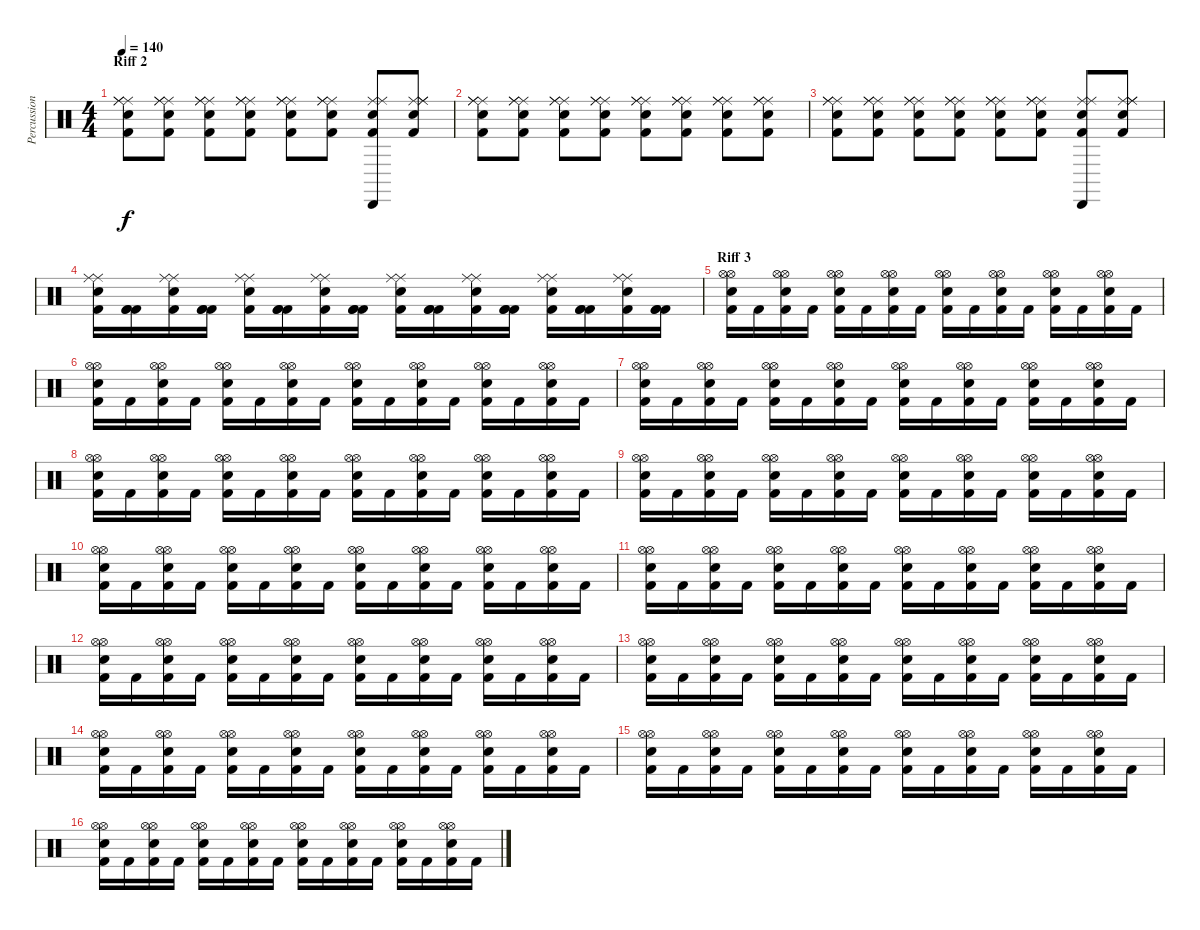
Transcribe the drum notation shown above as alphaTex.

\track ("Percussion" "Percussion") {instrument percussion}
\staff {score}
\articulation defaults
\ts (4 4)
\section ("" "Riff 2")
\tempo 140
\clef neutral
\ks c
("Ride (middle)" "Ride (middle)" "Ride (middle)" "Electric Snare (hit)" "Kick (hit) 2").8{dy f} ("Ride (middle)" "Ride (middle)" "Ride (middle)" "Electric Snare (hit)" "Kick (hit) 2").8 ("Ride (middle)" "Ride (middle)" "Ride (middle)" "Electric Snare (hit)" "Kick (hit) 2").8 ("Ride (middle)" "Ride (middle)" "Ride (middle)" "Electric Snare (hit)" "Kick (hit) 2").8 ("Ride (middle)" "Ride (middle)" "Ride (middle)" "Electric Snare (hit)" "Kick (hit) 2").8 ("Ride (middle)" "Ride (middle)" "Ride (middle)" "Electric Snare (hit)" "Kick (hit) 2").8 ("Cabasa (hit)" "Ride (middle)" "Ride (middle)" "Electric Snare (hit)" "Kick (hit) 2").8 ("Ride (middle)" "Ride (middle)" "Ride (middle)" "Electric Snare (hit)" "Kick (hit) 2").8 |
("Ride (middle)" "Ride (middle)" "Ride (middle)" "Electric Snare (hit)" "Kick (hit) 2").8 ("Ride (middle)" "Ride (middle)" "Ride (middle)" "Electric Snare (hit)" "Kick (hit) 2").8 ("Ride (middle)" "Ride (middle)" "Ride (middle)" "Electric Snare (hit)" "Kick (hit) 2").8 ("Ride (middle)" "Ride (middle)" "Ride (middle)" "Electric Snare (hit)" "Kick (hit) 2").8 ("Ride (middle)" "Ride (middle)" "Ride (middle)" "Electric Snare (hit)" "Kick (hit) 2").8 ("Ride (middle)" "Ride (middle)" "Ride (middle)" "Electric Snare (hit)" "Kick (hit) 2").8 ("Ride (middle)" "Ride (middle)" "Ride (middle)" "Electric Snare (hit)" "Kick (hit) 2").8 ("Ride (middle)" "Ride (middle)" "Ride (middle)" "Electric Snare (hit)" "Kick (hit) 2").8 |
("Ride (middle)" "Ride (middle)" "Ride (middle)" "Electric Snare (hit)" "Kick (hit) 2").8 ("Ride (middle)" "Ride (middle)" "Ride (middle)" "Electric Snare (hit)" "Kick (hit) 2").8 ("Ride (middle)" "Ride (middle)" "Ride (middle)" "Electric Snare (hit)" "Kick (hit) 2").8 ("Ride (middle)" "Ride (middle)" "Ride (middle)" "Electric Snare (hit)" "Kick (hit) 2").8 ("Ride (middle)" "Ride (middle)" "Ride (middle)" "Electric Snare (hit)" "Kick (hit) 2").8 ("Ride (middle)" "Ride (middle)" "Ride (middle)" "Electric Snare (hit)" "Kick (hit) 2").8 ("Cabasa (hit)" "Ride (middle)" "Ride (middle)" "Electric Snare (hit)" "Kick (hit) 2").8 ("Ride (middle)" "Ride (middle)" "Ride (middle)" "Electric Snare (hit)" "Kick (hit) 2").8 |
("Ride (middle)" "Ride (middle)" "Electric Snare (hit)" "Kick (hit) 2").16 ("Kick (hit) 2" "Kick (hit) 2" "Kick (hit) 2").16 ("Ride (middle)" "Ride (middle)" "Electric Snare (hit)" "Kick (hit) 2").16 ("Kick (hit) 2" "Kick (hit) 2" "Kick (hit) 2").16 ("Ride (middle)" "Ride (middle)" "Electric Snare (hit)" "Kick (hit) 2").16 ("Kick (hit) 2" "Kick (hit) 2" "Kick (hit) 2").16 ("Ride (middle)" "Ride (middle)" "Electric Snare (hit)" "Kick (hit) 2").16 ("Kick (hit) 2" "Kick (hit) 2" "Kick (hit) 2").16 ("Ride (middle)" "Ride (middle)" "Electric Snare (hit)" "Kick (hit) 2").16 ("Kick (hit) 2" "Kick (hit) 2" "Kick (hit) 2").16 ("Ride (middle)" "Ride (middle)" "Electric Snare (hit)" "Kick (hit) 2").16 ("Kick (hit) 2" "Kick (hit) 2" "Kick (hit) 2").16 ("Ride (middle)" "Ride (middle)" "Electric Snare (hit)" "Kick (hit) 2").16 ("Kick (hit) 2" "Kick (hit) 2" "Kick (hit) 2").16 ("Ride (middle)" "Ride (middle)" "Electric Snare (hit)" "Kick (hit) 2").16 ("Kick (hit) 2" "Kick (hit) 2" "Kick (hit) 2").16 |
\section ("" "Riff 3")
("Hi-Hat (open)" "Hi-Hat (open)" "Electric Snare (hit)" "Kick (hit) 2").16 "Kick (hit) 2".16 ("Hi-Hat (open)" "Hi-Hat (open)" "Electric Snare (hit)" "Kick (hit) 2").16 "Kick (hit) 2".16 ("Hi-Hat (open)" "Hi-Hat (open)" "Electric Snare (hit)" "Kick (hit) 2").16 "Kick (hit) 2".16 ("Hi-Hat (open)" "Hi-Hat (open)" "Electric Snare (hit)" "Kick (hit) 2").16 "Kick (hit) 2".16 ("Hi-Hat (open)" "Hi-Hat (open)" "Electric Snare (hit)" "Kick (hit) 2").16 "Kick (hit) 2".16 ("Hi-Hat (open)" "Hi-Hat (open)" "Electric Snare (hit)" "Kick (hit) 2").16 "Kick (hit) 2".16 ("Hi-Hat (open)" "Hi-Hat (open)" "Electric Snare (hit)" "Kick (hit) 2").16 "Kick (hit) 2".16 ("Hi-Hat (open)" "Hi-Hat (open)" "Electric Snare (hit)" "Kick (hit) 2").16 "Kick (hit) 2".16 |
("Hi-Hat (open)" "Hi-Hat (open)" "Electric Snare (hit)" "Kick (hit) 2").16 "Kick (hit) 2".16 ("Hi-Hat (open)" "Hi-Hat (open)" "Electric Snare (hit)" "Kick (hit) 2").16 "Kick (hit) 2".16 ("Hi-Hat (open)" "Hi-Hat (open)" "Electric Snare (hit)" "Kick (hit) 2").16 "Kick (hit) 2".16 ("Hi-Hat (open)" "Hi-Hat (open)" "Electric Snare (hit)" "Kick (hit) 2").16 "Kick (hit) 2".16 ("Hi-Hat (open)" "Hi-Hat (open)" "Electric Snare (hit)" "Kick (hit) 2").16 "Kick (hit) 2".16 ("Hi-Hat (open)" "Hi-Hat (open)" "Electric Snare (hit)" "Kick (hit) 2").16 "Kick (hit) 2".16 ("Hi-Hat (open)" "Hi-Hat (open)" "Electric Snare (hit)" "Kick (hit) 2").16 "Kick (hit) 2".16 ("Hi-Hat (open)" "Hi-Hat (open)" "Electric Snare (hit)" "Kick (hit) 2").16 "Kick (hit) 2".16 |
("Hi-Hat (open)" "Hi-Hat (open)" "Electric Snare (hit)" "Kick (hit) 2").16 "Kick (hit) 2".16 ("Hi-Hat (open)" "Hi-Hat (open)" "Electric Snare (hit)" "Kick (hit) 2").16 "Kick (hit) 2".16 ("Hi-Hat (open)" "Hi-Hat (open)" "Electric Snare (hit)" "Kick (hit) 2").16 "Kick (hit) 2".16 ("Hi-Hat (open)" "Hi-Hat (open)" "Electric Snare (hit)" "Kick (hit) 2").16 "Kick (hit) 2".16 ("Hi-Hat (open)" "Hi-Hat (open)" "Electric Snare (hit)" "Kick (hit) 2").16 "Kick (hit) 2".16 ("Hi-Hat (open)" "Hi-Hat (open)" "Electric Snare (hit)" "Kick (hit) 2").16 "Kick (hit) 2".16 ("Hi-Hat (open)" "Hi-Hat (open)" "Electric Snare (hit)" "Kick (hit) 2").16 "Kick (hit) 2".16 ("Hi-Hat (open)" "Hi-Hat (open)" "Electric Snare (hit)" "Kick (hit) 2").16 "Kick (hit) 2".16 |
("Hi-Hat (open)" "Hi-Hat (open)" "Electric Snare (hit)" "Kick (hit) 2").16 "Kick (hit) 2".16 ("Hi-Hat (open)" "Hi-Hat (open)" "Electric Snare (hit)" "Kick (hit) 2").16 "Kick (hit) 2".16 ("Hi-Hat (open)" "Hi-Hat (open)" "Electric Snare (hit)" "Kick (hit) 2").16 "Kick (hit) 2".16 ("Hi-Hat (open)" "Hi-Hat (open)" "Electric Snare (hit)" "Kick (hit) 2").16 "Kick (hit) 2".16 ("Hi-Hat (open)" "Hi-Hat (open)" "Electric Snare (hit)" "Kick (hit) 2").16 "Kick (hit) 2".16 ("Hi-Hat (open)" "Hi-Hat (open)" "Electric Snare (hit)" "Kick (hit) 2").16 "Kick (hit) 2".16 ("Hi-Hat (open)" "Hi-Hat (open)" "Electric Snare (hit)" "Kick (hit) 2").16 "Kick (hit) 2".16 ("Hi-Hat (open)" "Hi-Hat (open)" "Electric Snare (hit)" "Kick (hit) 2").16 "Kick (hit) 2".16 |
("Hi-Hat (open)" "Hi-Hat (open)" "Electric Snare (hit)" "Kick (hit) 2").16 "Kick (hit) 2".16 ("Hi-Hat (open)" "Hi-Hat (open)" "Electric Snare (hit)" "Kick (hit) 2").16 "Kick (hit) 2".16 ("Hi-Hat (open)" "Hi-Hat (open)" "Electric Snare (hit)" "Kick (hit) 2").16 "Kick (hit) 2".16 ("Hi-Hat (open)" "Hi-Hat (open)" "Electric Snare (hit)" "Kick (hit) 2").16 "Kick (hit) 2".16 ("Hi-Hat (open)" "Hi-Hat (open)" "Electric Snare (hit)" "Kick (hit) 2").16 "Kick (hit) 2".16 ("Hi-Hat (open)" "Hi-Hat (open)" "Electric Snare (hit)" "Kick (hit) 2").16 "Kick (hit) 2".16 ("Hi-Hat (open)" "Hi-Hat (open)" "Electric Snare (hit)" "Kick (hit) 2").16 "Kick (hit) 2".16 ("Hi-Hat (open)" "Hi-Hat (open)" "Electric Snare (hit)" "Kick (hit) 2").16 "Kick (hit) 2".16 |
("Hi-Hat (open)" "Hi-Hat (open)" "Electric Snare (hit)" "Kick (hit) 2").16 "Kick (hit) 2".16 ("Hi-Hat (open)" "Hi-Hat (open)" "Electric Snare (hit)" "Kick (hit) 2").16 "Kick (hit) 2".16 ("Hi-Hat (open)" "Hi-Hat (open)" "Electric Snare (hit)" "Kick (hit) 2").16 "Kick (hit) 2".16 ("Hi-Hat (open)" "Hi-Hat (open)" "Electric Snare (hit)" "Kick (hit) 2").16 "Kick (hit) 2".16 ("Hi-Hat (open)" "Hi-Hat (open)" "Electric Snare (hit)" "Kick (hit) 2").16 "Kick (hit) 2".16 ("Hi-Hat (open)" "Hi-Hat (open)" "Electric Snare (hit)" "Kick (hit) 2").16 "Kick (hit) 2".16 ("Hi-Hat (open)" "Hi-Hat (open)" "Electric Snare (hit)" "Kick (hit) 2").16 "Kick (hit) 2".16 ("Hi-Hat (open)" "Hi-Hat (open)" "Electric Snare (hit)" "Kick (hit) 2").16 "Kick (hit) 2".16 |
("Hi-Hat (open)" "Hi-Hat (open)" "Electric Snare (hit)" "Kick (hit) 2").16 "Kick (hit) 2".16 ("Hi-Hat (open)" "Hi-Hat (open)" "Electric Snare (hit)" "Kick (hit) 2").16 "Kick (hit) 2".16 ("Hi-Hat (open)" "Hi-Hat (open)" "Electric Snare (hit)" "Kick (hit) 2").16 "Kick (hit) 2".16 ("Hi-Hat (open)" "Hi-Hat (open)" "Electric Snare (hit)" "Kick (hit) 2").16 "Kick (hit) 2".16 ("Hi-Hat (open)" "Hi-Hat (open)" "Electric Snare (hit)" "Kick (hit) 2").16 "Kick (hit) 2".16 ("Hi-Hat (open)" "Hi-Hat (open)" "Electric Snare (hit)" "Kick (hit) 2").16 "Kick (hit) 2".16 ("Hi-Hat (open)" "Hi-Hat (open)" "Electric Snare (hit)" "Kick (hit) 2").16 "Kick (hit) 2".16 ("Hi-Hat (open)" "Hi-Hat (open)" "Electric Snare (hit)" "Kick (hit) 2").16 "Kick (hit) 2".16 |
("Hi-Hat (open)" "Hi-Hat (open)" "Electric Snare (hit)" "Kick (hit) 2").16 "Kick (hit) 2".16 ("Hi-Hat (open)" "Hi-Hat (open)" "Electric Snare (hit)" "Kick (hit) 2").16 "Kick (hit) 2".16 ("Hi-Hat (open)" "Hi-Hat (open)" "Electric Snare (hit)" "Kick (hit) 2").16 "Kick (hit) 2".16 ("Hi-Hat (open)" "Hi-Hat (open)" "Electric Snare (hit)" "Kick (hit) 2").16 "Kick (hit) 2".16 ("Hi-Hat (open)" "Hi-Hat (open)" "Electric Snare (hit)" "Kick (hit) 2").16 "Kick (hit) 2".16 ("Hi-Hat (open)" "Hi-Hat (open)" "Electric Snare (hit)" "Kick (hit) 2").16 "Kick (hit) 2".16 ("Hi-Hat (open)" "Hi-Hat (open)" "Electric Snare (hit)" "Kick (hit) 2").16 "Kick (hit) 2".16 ("Hi-Hat (open)" "Hi-Hat (open)" "Electric Snare (hit)" "Kick (hit) 2").16 "Kick (hit) 2".16 |
("Hi-Hat (open)" "Hi-Hat (open)" "Electric Snare (hit)" "Kick (hit) 2").16 "Kick (hit) 2".16 ("Hi-Hat (open)" "Hi-Hat (open)" "Electric Snare (hit)" "Kick (hit) 2").16 "Kick (hit) 2".16 ("Hi-Hat (open)" "Hi-Hat (open)" "Electric Snare (hit)" "Kick (hit) 2").16 "Kick (hit) 2".16 ("Hi-Hat (open)" "Hi-Hat (open)" "Electric Snare (hit)" "Kick (hit) 2").16 "Kick (hit) 2".16 ("Hi-Hat (open)" "Hi-Hat (open)" "Electric Snare (hit)" "Kick (hit) 2").16 "Kick (hit) 2".16 ("Hi-Hat (open)" "Hi-Hat (open)" "Electric Snare (hit)" "Kick (hit) 2").16 "Kick (hit) 2".16 ("Hi-Hat (open)" "Hi-Hat (open)" "Electric Snare (hit)" "Kick (hit) 2").16 "Kick (hit) 2".16 ("Hi-Hat (open)" "Hi-Hat (open)" "Electric Snare (hit)" "Kick (hit) 2").16 "Kick (hit) 2".16 |
("Hi-Hat (open)" "Hi-Hat (open)" "Electric Snare (hit)" "Kick (hit) 2").16 "Kick (hit) 2".16 ("Hi-Hat (open)" "Hi-Hat (open)" "Electric Snare (hit)" "Kick (hit) 2").16 "Kick (hit) 2".16 ("Hi-Hat (open)" "Hi-Hat (open)" "Electric Snare (hit)" "Kick (hit) 2").16 "Kick (hit) 2".16 ("Hi-Hat (open)" "Hi-Hat (open)" "Electric Snare (hit)" "Kick (hit) 2").16 "Kick (hit) 2".16 ("Hi-Hat (open)" "Hi-Hat (open)" "Electric Snare (hit)" "Kick (hit) 2").16 "Kick (hit) 2".16 ("Hi-Hat (open)" "Hi-Hat (open)" "Electric Snare (hit)" "Kick (hit) 2").16 "Kick (hit) 2".16 ("Hi-Hat (open)" "Hi-Hat (open)" "Electric Snare (hit)" "Kick (hit) 2").16 "Kick (hit) 2".16 ("Hi-Hat (open)" "Hi-Hat (open)" "Electric Snare (hit)" "Kick (hit) 2").16 "Kick (hit) 2".16 |
("Hi-Hat (open)" "Hi-Hat (open)" "Electric Snare (hit)" "Kick (hit) 2").16 "Kick (hit) 2".16 ("Hi-Hat (open)" "Hi-Hat (open)" "Electric Snare (hit)" "Kick (hit) 2").16 "Kick (hit) 2".16 ("Hi-Hat (open)" "Hi-Hat (open)" "Electric Snare (hit)" "Kick (hit) 2").16 "Kick (hit) 2".16 ("Hi-Hat (open)" "Hi-Hat (open)" "Electric Snare (hit)" "Kick (hit) 2").16 "Kick (hit) 2".16 ("Hi-Hat (open)" "Hi-Hat (open)" "Electric Snare (hit)" "Kick (hit) 2").16 "Kick (hit) 2".16 ("Hi-Hat (open)" "Hi-Hat (open)" "Electric Snare (hit)" "Kick (hit) 2").16 "Kick (hit) 2".16 ("Hi-Hat (open)" "Hi-Hat (open)" "Electric Snare (hit)" "Kick (hit) 2").16 "Kick (hit) 2".16 ("Hi-Hat (open)" "Hi-Hat (open)" "Electric Snare (hit)" "Kick (hit) 2").16 "Kick (hit) 2".16 |
("Hi-Hat (open)" "Hi-Hat (open)" "Electric Snare (hit)" "Kick (hit) 2").16 "Kick (hit) 2".16 ("Hi-Hat (open)" "Hi-Hat (open)" "Electric Snare (hit)" "Kick (hit) 2").16 "Kick (hit) 2".16 ("Hi-Hat (open)" "Hi-Hat (open)" "Electric Snare (hit)" "Kick (hit) 2").16 "Kick (hit) 2".16 ("Hi-Hat (open)" "Hi-Hat (open)" "Electric Snare (hit)" "Kick (hit) 2").16 "Kick (hit) 2".16 ("Hi-Hat (open)" "Hi-Hat (open)" "Electric Snare (hit)" "Kick (hit) 2").16 "Kick (hit) 2".16 ("Hi-Hat (open)" "Hi-Hat (open)" "Electric Snare (hit)" "Kick (hit) 2").16 "Kick (hit) 2".16 ("Hi-Hat (open)" "Hi-Hat (open)" "Electric Snare (hit)" "Kick (hit) 2").16 "Kick (hit) 2".16 ("Hi-Hat (open)" "Hi-Hat (open)" "Electric Snare (hit)" "Kick (hit) 2").16 "Kick (hit) 2".16
